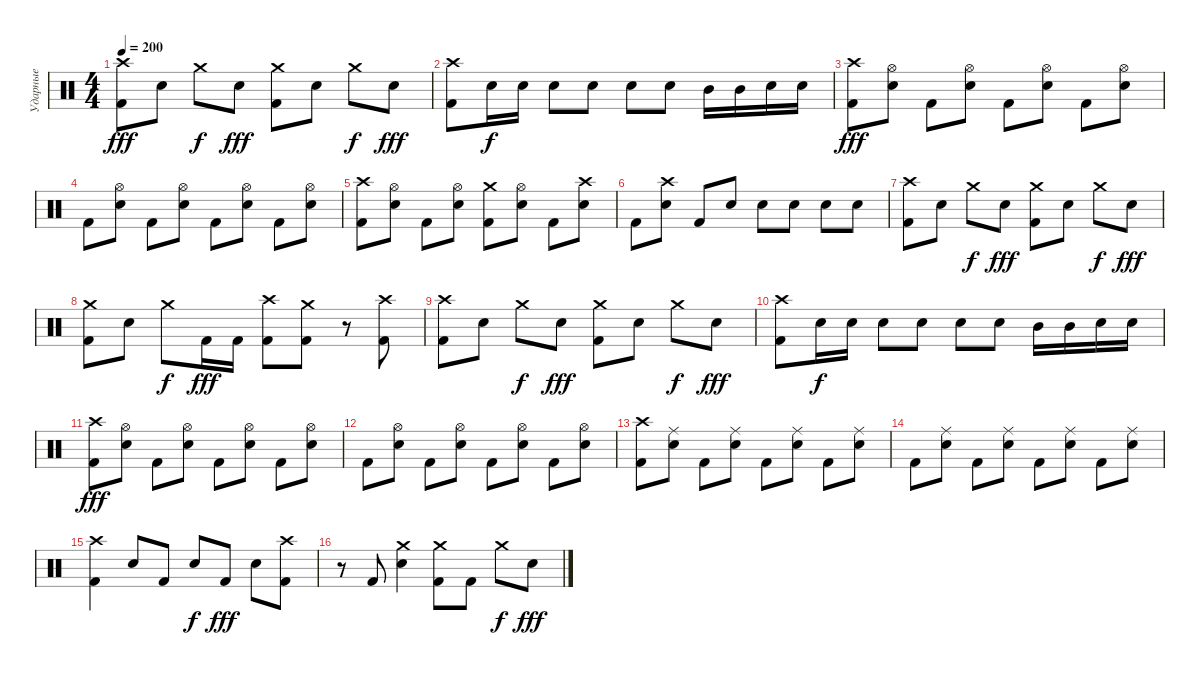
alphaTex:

\track ("Ударные" "Ударные") {instrument percussion}
\staff {score}
\articulation defaults
\ts (4 4)
\tempo 200
\clef neutral
\ks c
("Crash high (hit)" "Kick (hit) 2").8{dy fff} "Electric Snare (hit)".8 "Crash medium (hit)".8{dy f} "Electric Snare (hit)".8{dy fff} ("Crash medium (hit)" "Kick (hit) 2").8 "Electric Snare (hit)".8 "Crash medium (hit)".8{dy f} "Electric Snare (hit)".8{dy fff} |
("Crash high (hit)" "Kick (hit) 2").8 "Electric Snare (hit)".16{dy f} "Electric Snare (hit)".16 "Electric Snare (hit)".8 "Electric Snare (hit)".8 "Electric Snare (hit)".8 "Electric Snare (hit)".8 "Mid Tom (hit)".16 "Mid Tom (hit)".16 "Electric Snare (hit)".16 "Electric Snare (hit)".16 |
("Crash high (hit)" "Kick (hit) 2").8{dy fff} ("Hi-Hat (open)" "Electric Snare (hit)").8 "Kick (hit) 2".8 ("Hi-Hat (open)" "Electric Snare (hit)").8 "Kick (hit) 2".8 ("Hi-Hat (open)" "Electric Snare (hit)").8 "Kick (hit) 2".8 ("Hi-Hat (open)" "Electric Snare (hit)").8 |
"Kick (hit) 2".8 ("Hi-Hat (open)" "Electric Snare (hit)").8 "Kick (hit) 2".8 ("Hi-Hat (open)" "Electric Snare (hit)").8 "Kick (hit) 2".8 ("Hi-Hat (open)" "Electric Snare (hit)").8 "Kick (hit) 2".8 ("Hi-Hat (open)" "Electric Snare (hit)").8 |
("Crash high (hit)" "Kick (hit) 2").8 ("Hi-Hat (open)" "Electric Snare (hit)").8 "Kick (hit) 2".8 ("Hi-Hat (open)" "Electric Snare (hit)").8 ("Crash medium (hit)" "Kick (hit) 2").8 ("Hi-Hat (open)" "Electric Snare (hit)").8 "Kick (hit) 2".8 ("Crash high (hit)" "Electric Snare (hit)").8 |
"Kick (hit) 2".8 ("Crash high (hit)" "Electric Snare (hit)").8 "Kick (hit) 2".8 "Electric Snare (hit)".8 "Electric Snare (hit)".8 "Electric Snare (hit)".8 "Electric Snare (hit)".8 "Electric Snare (hit)".8 |
("Crash high (hit)" "Kick (hit) 2").8 "Electric Snare (hit)".8 "Crash medium (hit)".8{dy f} "Electric Snare (hit)".8{dy fff} ("Crash medium (hit)" "Kick (hit) 2").8 "Electric Snare (hit)".8 "Crash medium (hit)".8{dy f} "Electric Snare (hit)".8{dy fff} |
("Crash medium (hit)" "Kick (hit) 2").8 "Electric Snare (hit)".8 "Crash medium (hit)".8{dy f} "Kick (hit) 2".16{dy fff} "Kick (hit) 2".16 ("Crash high (hit)" "Kick (hit) 2").8 ("Crash medium (hit)" "Kick (hit) 2").8 r.8 ("Crash high (hit)" "Kick (hit) 2").8 |
("Crash high (hit)" "Kick (hit) 2").8 "Electric Snare (hit)".8 "Crash medium (hit)".8{dy f} "Electric Snare (hit)".8{dy fff} ("Crash medium (hit)" "Kick (hit) 2").8 "Electric Snare (hit)".8 "Crash medium (hit)".8{dy f} "Electric Snare (hit)".8{dy fff} |
("Crash high (hit)" "Kick (hit) 2").8 "Electric Snare (hit)".16{dy f} "Electric Snare (hit)".16 "Electric Snare (hit)".8 "Electric Snare (hit)".8 "Electric Snare (hit)".8 "Electric Snare (hit)".8 "Mid Tom (hit)".16 "Mid Tom (hit)".16 "Electric Snare (hit)".16 "Electric Snare (hit)".16 |
("Crash high (hit)" "Kick (hit) 2").8{dy fff} ("Hi-Hat (open)" "Electric Snare (hit)").8 "Kick (hit) 2".8 ("Hi-Hat (open)" "Electric Snare (hit)").8 "Kick (hit) 2".8 ("Hi-Hat (open)" "Electric Snare (hit)").8 "Kick (hit) 2".8 ("Hi-Hat (open)" "Electric Snare (hit)").8 |
"Kick (hit) 2".8 ("Hi-Hat (open)" "Electric Snare (hit)").8 "Kick (hit) 2".8 ("Hi-Hat (open)" "Electric Snare (hit)").8 "Kick (hit) 2".8 ("Hi-Hat (open)" "Electric Snare (hit)").8 "Kick (hit) 2".8 ("Hi-Hat (open)" "Electric Snare (hit)").8 |
("Crash high (hit)" "Kick (hit) 2").8 ("Ride (middle)" "Electric Snare (hit)").8 "Kick (hit) 2".8 ("Ride (middle)" "Electric Snare (hit)").8 "Kick (hit) 2".8 ("Ride (middle)" "Electric Snare (hit)").8 "Kick (hit) 2".8 ("Ride (middle)" "Electric Snare (hit)").8 |
"Kick (hit) 2".8 ("Ride (middle)" "Electric Snare (hit)").8 "Kick (hit) 2".8 ("Ride (middle)" "Electric Snare (hit)").8 "Kick (hit) 2".8 ("Ride (middle)" "Electric Snare (hit)").8 "Kick (hit) 2".8 ("Ride (middle)" "Electric Snare (hit)").8 |
("Crash high (hit)" "Kick (hit) 2").4 "Electric Snare (hit)".8 "Kick (hit) 2".8 "Electric Snare (hit)".8{dy f} "Kick (hit) 2".8{dy fff} "Electric Snare (hit)".8 ("Crash high (hit)" "Kick (hit) 2").8 |
r.8 "Kick (hit) 2".8 ("Crash medium (hit)" "Electric Snare (hit)").4 ("Crash medium (hit)" "Kick (hit) 2").8 "Kick (hit) 2".8 "Crash medium (hit)".8{dy f} "Electric Snare (hit)".8{dy fff}
